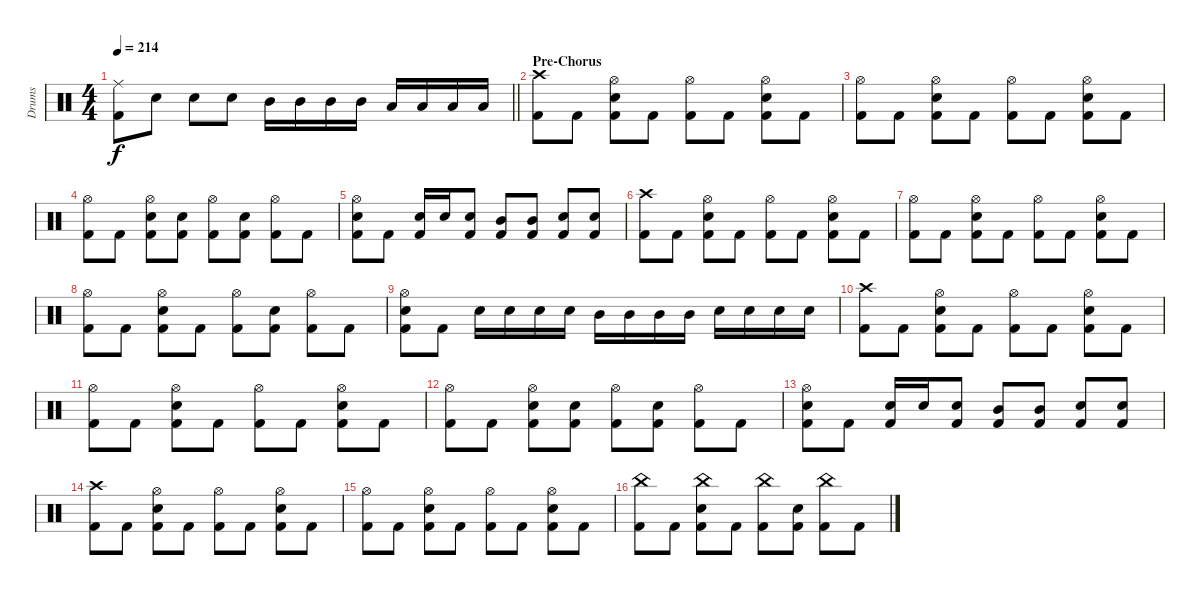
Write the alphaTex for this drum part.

\track ("Drums" "Drums") {instrument percussion}
\staff {score}
\articulation defaults
\ts (4 4)
\tempo 214
\clef neutral
\barLineRight lightlight
\ks c
("Ride (middle)" "Kick (hit) 2").8{dy f} "Snare (hit) 2".8 "Snare (hit) 2".8 "Snare (hit) 2".8 "Mid Tom (hit)".16 "Mid Tom (hit)".16 "Mid Tom (hit)".16 "Mid Tom (hit)".16 "Low Tom (hit)".16 "Low Tom (hit)".16 "Low Tom (hit)".16 "Low Tom (hit)".16 |
\section ("" "Pre-Chorus")
("Crash high (hit)" "Kick (hit) 2").8 "Kick (hit) 2".8 ("Hi-Hat (open)" "Snare (hit) 2" "Kick (hit) 2").8 "Kick (hit) 2".8 ("Hi-Hat (open)" "Kick (hit) 2").8 "Kick (hit) 2".8 ("Hi-Hat (open)" "Snare (hit) 2" "Kick (hit) 2").8 "Kick (hit) 2".8 |
("Hi-Hat (open)" "Kick (hit) 2").8 "Kick (hit) 2".8 ("Hi-Hat (open)" "Snare (hit) 2" "Kick (hit) 2").8 "Kick (hit) 2".8 ("Hi-Hat (open)" "Kick (hit) 2").8 "Kick (hit) 2".8 ("Hi-Hat (open)" "Snare (hit) 2" "Kick (hit) 2").8 "Kick (hit) 2".8 |
("Hi-Hat (open)" "Kick (hit) 2").8 "Kick (hit) 2".8 ("Hi-Hat (open)" "Snare (hit) 2" "Kick (hit) 2").8 ("Snare (hit) 2" "Kick (hit) 2").8 ("Hi-Hat (open)" "Kick (hit) 2").8 ("Snare (hit) 2" "Kick (hit) 2").8 ("Hi-Hat (open)" "Kick (hit) 2").8 "Kick (hit) 2".8 |
("Hi-Hat (open)" "Snare (hit) 2" "Kick (hit) 2").8 "Kick (hit) 2".8 ("Snare (hit) 2" "Kick (hit) 2").16 "Snare (hit) 2".16 ("Snare (hit) 2" "Kick (hit) 2").8 ("Mid Tom (hit)" "Kick (hit) 2").8 ("Mid Tom (hit)" "Kick (hit) 2").8 ("Snare (hit) 2" "Kick (hit) 2").8 ("Snare (hit) 2" "Kick (hit) 2").8 |
("Crash high (hit)" "Kick (hit) 2").8 "Kick (hit) 2".8 ("Hi-Hat (open)" "Snare (hit) 2" "Kick (hit) 2").8 "Kick (hit) 2".8 ("Hi-Hat (open)" "Kick (hit) 2").8 "Kick (hit) 2".8 ("Hi-Hat (open)" "Snare (hit) 2" "Kick (hit) 2").8 "Kick (hit) 2".8 |
("Hi-Hat (open)" "Kick (hit) 2").8 "Kick (hit) 2".8 ("Hi-Hat (open)" "Snare (hit) 2" "Kick (hit) 2").8 "Kick (hit) 2".8 ("Hi-Hat (open)" "Kick (hit) 2").8 "Kick (hit) 2".8 ("Hi-Hat (open)" "Snare (hit) 2" "Kick (hit) 2").8 "Kick (hit) 2".8 |
("Hi-Hat (open)" "Kick (hit) 2").8 "Kick (hit) 2".8 ("Hi-Hat (open)" "Snare (hit) 2" "Kick (hit) 2").8 "Kick (hit) 2".8 ("Hi-Hat (open)" "Kick (hit) 2").8 ("Snare (hit) 2" "Kick (hit) 2").8 ("Hi-Hat (open)" "Kick (hit) 2").8 "Kick (hit) 2".8 |
("Hi-Hat (open)" "Snare (hit) 2" "Kick (hit) 2").8 "Kick (hit) 2".8 "Snare (hit) 2".16 "Snare (hit) 2".16 "Snare (hit) 2".16 "Snare (hit) 2".16 "Mid Tom (hit)".16 "Mid Tom (hit)".16 "Mid Tom (hit)".16 "Mid Tom (hit)".16 "Snare (hit) 2".16 "Snare (hit) 2".16 "Snare (hit) 2".16 "Snare (hit) 2".16 |
("Crash high (hit)" "Kick (hit) 2").8 "Kick (hit) 2".8 ("Hi-Hat (open)" "Snare (hit) 2" "Kick (hit) 2").8 "Kick (hit) 2".8 ("Hi-Hat (open)" "Kick (hit) 2").8 "Kick (hit) 2".8 ("Hi-Hat (open)" "Snare (hit) 2" "Kick (hit) 2").8 "Kick (hit) 2".8 |
("Hi-Hat (open)" "Kick (hit) 2").8 "Kick (hit) 2".8 ("Hi-Hat (open)" "Snare (hit) 2" "Kick (hit) 2").8 "Kick (hit) 2".8 ("Hi-Hat (open)" "Kick (hit) 2").8 "Kick (hit) 2".8 ("Hi-Hat (open)" "Snare (hit) 2" "Kick (hit) 2").8 "Kick (hit) 2".8 |
("Hi-Hat (open)" "Kick (hit) 2").8 "Kick (hit) 2".8 ("Hi-Hat (open)" "Snare (hit) 2" "Kick (hit) 2").8 ("Snare (hit) 2" "Kick (hit) 2").8 ("Hi-Hat (open)" "Kick (hit) 2").8 ("Snare (hit) 2" "Kick (hit) 2").8 ("Hi-Hat (open)" "Kick (hit) 2").8 "Kick (hit) 2".8 |
("Hi-Hat (open)" "Snare (hit) 2" "Kick (hit) 2").8 "Kick (hit) 2".8 ("Snare (hit) 2" "Kick (hit) 2").16 "Snare (hit) 2".16 ("Snare (hit) 2" "Kick (hit) 2").8 ("Mid Tom (hit)" "Kick (hit) 2").8 ("Mid Tom (hit)" "Kick (hit) 2").8 ("Snare (hit) 2" "Kick (hit) 2").8 ("Snare (hit) 2" "Kick (hit) 2").8 |
("Crash high (hit)" "Kick (hit) 2").8 "Kick (hit) 2".8 ("Hi-Hat (open)" "Snare (hit) 2" "Kick (hit) 2").8 "Kick (hit) 2".8 ("Hi-Hat (open)" "Kick (hit) 2").8 "Kick (hit) 2".8 ("Hi-Hat (open)" "Snare (hit) 2" "Kick (hit) 2").8 "Kick (hit) 2".8 |
("Hi-Hat (open)" "Kick (hit) 2").8 "Kick (hit) 2".8 ("Hi-Hat (open)" "Snare (hit) 2" "Kick (hit) 2").8 "Kick (hit) 2".8 ("Hi-Hat (open)" "Kick (hit) 2").8 "Kick (hit) 2".8 ("Hi-Hat (open)" "Snare (hit) 2" "Kick (hit) 2").8 "Kick (hit) 2".8 |
("China (hit)" "Kick (hit) 2").8 "Kick (hit) 2".8 ("China (hit)" "Snare (hit) 2" "Kick (hit) 2").8 "Kick (hit) 2".8 ("China (hit)" "Kick (hit) 2").8 ("Snare (hit) 2" "Kick (hit) 2").8 ("China (hit)" "Kick (hit) 2").8 "Kick (hit) 2".8
